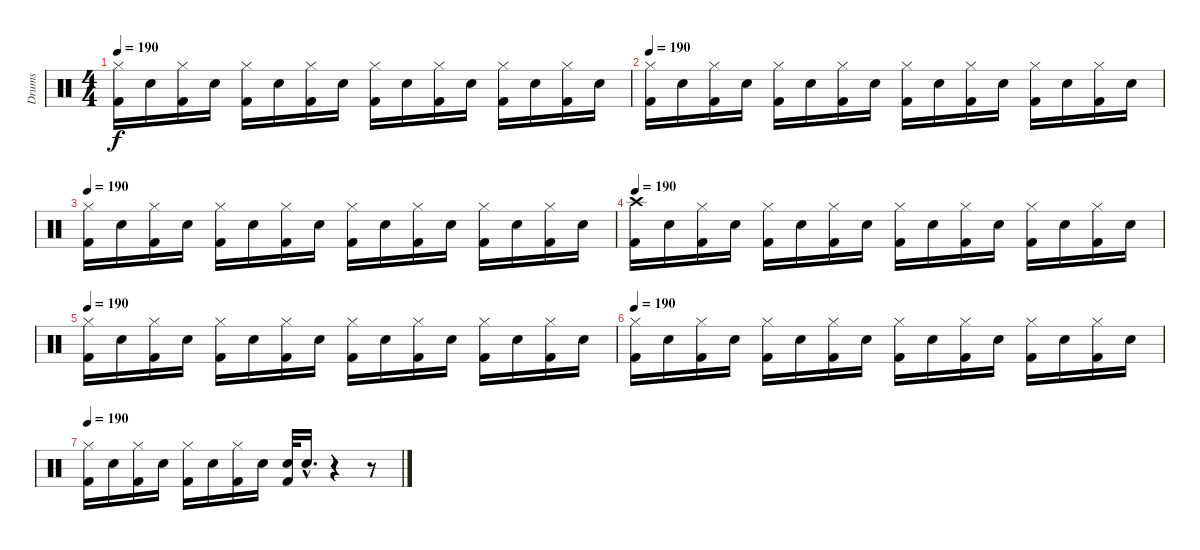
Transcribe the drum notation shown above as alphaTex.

\track ("Drums" "Drums") {instrument percussion}
\staff {score}
\articulation defaults
\ts (4 4)
\tempo 190
\clef neutral
\ks c
("Hi-Hat (closed)" "Kick (hit) 2").16{dy f} "Electric Snare (hit)".16 ("Hi-Hat (closed)" "Kick (hit) 2").16 "Electric Snare (hit)".16 ("Hi-Hat (closed)" "Kick (hit) 2").16 "Electric Snare (hit)".16 ("Hi-Hat (closed)" "Kick (hit) 2").16 "Electric Snare (hit)".16 ("Hi-Hat (closed)" "Kick (hit) 2").16 "Electric Snare (hit)".16 ("Hi-Hat (closed)" "Kick (hit) 2").16 "Electric Snare (hit)".16 ("Hi-Hat (closed)" "Kick (hit) 2").16 "Electric Snare (hit)".16 ("Hi-Hat (closed)" "Kick (hit) 2").16 "Electric Snare (hit)".16 |
\tempo 190
("Hi-Hat (closed)" "Kick (hit) 2").16 "Electric Snare (hit)".16 ("Hi-Hat (closed)" "Kick (hit) 2").16 "Electric Snare (hit)".16 ("Hi-Hat (closed)" "Kick (hit) 2").16 "Electric Snare (hit)".16 ("Hi-Hat (closed)" "Kick (hit) 2").16 "Electric Snare (hit)".16 ("Hi-Hat (closed)" "Kick (hit) 2").16 "Electric Snare (hit)".16 ("Hi-Hat (closed)" "Kick (hit) 2").16 "Electric Snare (hit)".16 ("Hi-Hat (closed)" "Kick (hit) 2").16 "Electric Snare (hit)".16 ("Hi-Hat (closed)" "Kick (hit) 2").16 "Electric Snare (hit)".16 |
\tempo 190
("Hi-Hat (closed)" "Kick (hit) 2").16 "Electric Snare (hit)".16 ("Hi-Hat (closed)" "Kick (hit) 2").16 "Electric Snare (hit)".16 ("Hi-Hat (closed)" "Kick (hit) 2").16 "Electric Snare (hit)".16 ("Hi-Hat (closed)" "Kick (hit) 2").16 "Electric Snare (hit)".16 ("Hi-Hat (closed)" "Kick (hit) 2").16 "Electric Snare (hit)".16 ("Hi-Hat (closed)" "Kick (hit) 2").16 "Electric Snare (hit)".16 ("Hi-Hat (closed)" "Kick (hit) 2").16 "Electric Snare (hit)".16 ("Hi-Hat (closed)" "Kick (hit) 2").16 "Electric Snare (hit)".16 |
\tempo 190
("Crash high (hit)" "Kick (hit) 2").16 "Electric Snare (hit)".16 ("Hi-Hat (closed)" "Kick (hit) 2").16 "Electric Snare (hit)".16 ("Hi-Hat (closed)" "Kick (hit) 2").16 "Electric Snare (hit)".16 ("Hi-Hat (closed)" "Kick (hit) 2").16 "Electric Snare (hit)".16 ("Hi-Hat (closed)" "Kick (hit) 2").16 "Electric Snare (hit)".16 ("Hi-Hat (closed)" "Kick (hit) 2").16 "Electric Snare (hit)".16 ("Hi-Hat (closed)" "Kick (hit) 2").16 "Electric Snare (hit)".16 ("Hi-Hat (closed)" "Kick (hit) 2").16 "Electric Snare (hit)".16 |
\tempo 190
("Hi-Hat (closed)" "Kick (hit) 2").16 "Electric Snare (hit)".16 ("Hi-Hat (closed)" "Kick (hit) 2").16 "Electric Snare (hit)".16 ("Hi-Hat (closed)" "Kick (hit) 2").16 "Electric Snare (hit)".16 ("Hi-Hat (closed)" "Kick (hit) 2").16 "Electric Snare (hit)".16 ("Hi-Hat (closed)" "Kick (hit) 2").16 "Electric Snare (hit)".16 ("Hi-Hat (closed)" "Kick (hit) 2").16 "Electric Snare (hit)".16 ("Hi-Hat (closed)" "Kick (hit) 2").16 "Electric Snare (hit)".16 ("Hi-Hat (closed)" "Kick (hit) 2").16 "Electric Snare (hit)".16 |
\tempo 190
("Hi-Hat (closed)" "Kick (hit) 2").16 "Electric Snare (hit)".16 ("Hi-Hat (closed)" "Kick (hit) 2").16 "Electric Snare (hit)".16 ("Hi-Hat (closed)" "Kick (hit) 2").16 "Electric Snare (hit)".16 ("Hi-Hat (closed)" "Kick (hit) 2").16 "Electric Snare (hit)".16 ("Hi-Hat (closed)" "Kick (hit) 2").16 "Electric Snare (hit)".16 ("Hi-Hat (closed)" "Kick (hit) 2").16 "Electric Snare (hit)".16 ("Hi-Hat (closed)" "Kick (hit) 2").16 "Electric Snare (hit)".16 ("Hi-Hat (closed)" "Kick (hit) 2").16 "Electric Snare (hit)".16 |
\tempo 190
("Hi-Hat (closed)" "Kick (hit) 2").16 "Electric Snare (hit)".16 ("Hi-Hat (closed)" "Kick (hit) 2").16 "Electric Snare (hit)".16 ("Hi-Hat (closed)" "Kick (hit) 2").16 "Electric Snare (hit)".16 ("Hi-Hat (closed)" "Kick (hit) 2").16 "Electric Snare (hit)".16 ("Electric Snare (hit)" "Kick (hit) 2").32 "Electric Snare (hit)"{hac}.16{d} r.4 r.8
